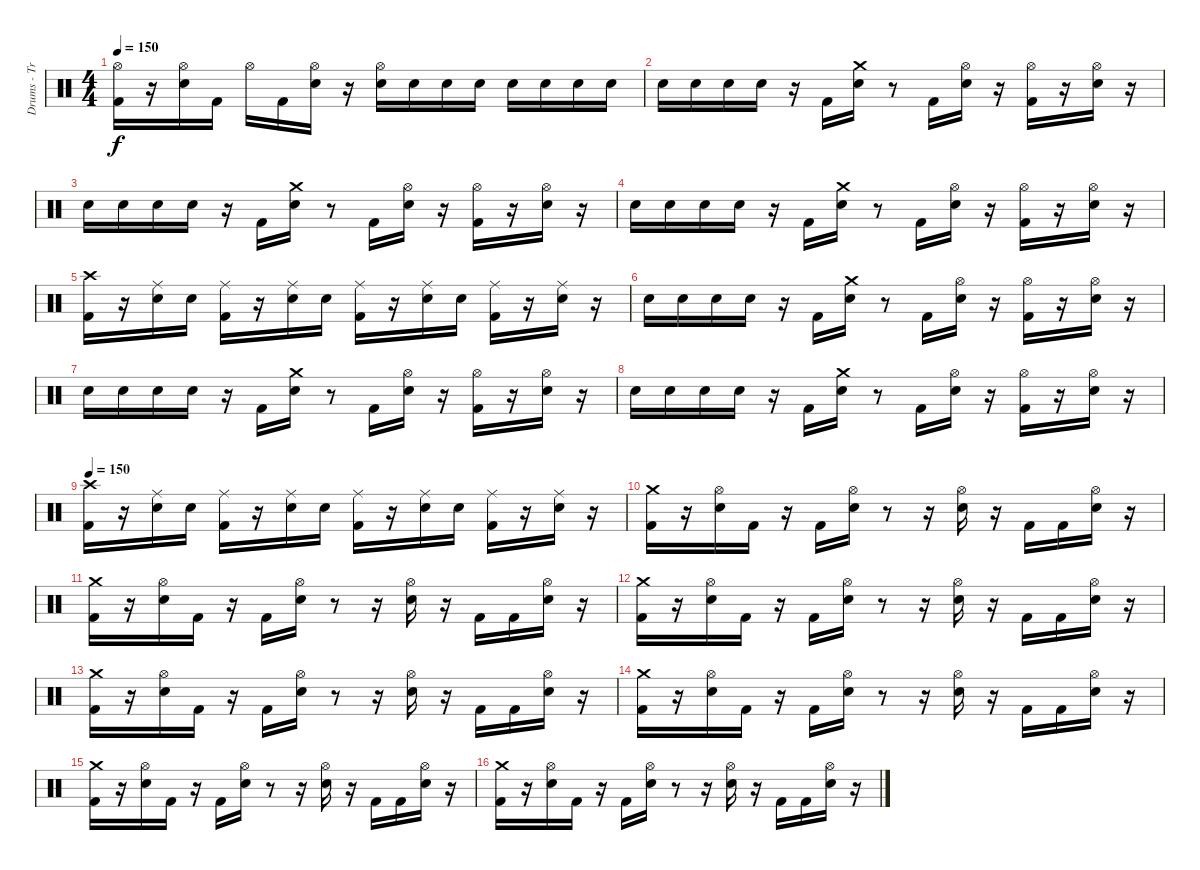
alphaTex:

\track ("Drums - Travis Barker" "Drums - Tr") {instrument percussion}
\staff {score}
\articulation defaults
\ts (4 4)
\tempo 150
\clef neutral
\ks c
("Hi-Hat (open)" "Kick (hit) 2").16{dy f} r.16 ("Hi-Hat (open)" "Electric Snare (hit)").16 "Kick (hit) 2".16 "Hi-Hat (open)".16 "Kick (hit) 2".16 ("Hi-Hat (open)" "Electric Snare (hit)").16 r.16 ("Hi-Hat (open)" "Electric Snare (hit)").16 "Electric Snare (hit)".16 "Electric Snare (hit)".16 "Electric Snare (hit)".16 "Electric Snare (hit)".16 "Electric Snare (hit)".16 "Electric Snare (hit)".16 "Electric Snare (hit)".16 |
"Electric Snare (hit)".16 "Electric Snare (hit)".16 "Electric Snare (hit)".16 "Electric Snare (hit)".16 r.16 "Kick (hit) 2".16 ("Crash medium (hit)" "Electric Snare (hit)").16 r.8 "Kick (hit) 2".16 ("Hi-Hat (open)" "Electric Snare (hit)").16 r.16 ("Hi-Hat (open)" "Kick (hit) 2").16 r.16 ("Hi-Hat (open)" "Electric Snare (hit)").16 r.16 |
"Electric Snare (hit)".16 "Electric Snare (hit)".16 "Electric Snare (hit)".16 "Electric Snare (hit)".16 r.16 "Kick (hit) 2".16 ("Crash medium (hit)" "Electric Snare (hit)").16 r.8 "Kick (hit) 2".16 ("Hi-Hat (open)" "Electric Snare (hit)").16 r.16 ("Hi-Hat (open)" "Kick (hit) 2").16 r.16 ("Hi-Hat (open)" "Electric Snare (hit)").16 r.16 |
"Electric Snare (hit)".16 "Electric Snare (hit)".16 "Electric Snare (hit)".16 "Electric Snare (hit)".16 r.16 "Kick (hit) 2".16 ("Crash medium (hit)" "Electric Snare (hit)").16 r.8 "Kick (hit) 2".16 ("Hi-Hat (open)" "Electric Snare (hit)").16 r.16 ("Hi-Hat (open)" "Kick (hit) 2").16 r.16 ("Hi-Hat (open)" "Electric Snare (hit)").16 r.16 |
("Crash high (hit)" "Kick (hit) 2").16 r.16 ("Ride (middle)" "Electric Snare (hit)").16 "Electric Snare (hit)".16 ("Ride (middle)" "Kick (hit) 2").16 r.16 ("Ride (middle)" "Electric Snare (hit)").16 "Electric Snare (hit)".16 ("Ride (middle)" "Kick (hit) 2").16 r.16 ("Ride (middle)" "Electric Snare (hit)").16 "Electric Snare (hit)".16 ("Ride (middle)" "Kick (hit) 2").16 r.16 ("Ride (middle)" "Electric Snare (hit)").16 r.16 |
"Electric Snare (hit)".16 "Electric Snare (hit)".16 "Electric Snare (hit)".16 "Electric Snare (hit)".16 r.16 "Kick (hit) 2".16 ("Crash medium (hit)" "Electric Snare (hit)").16 r.8 "Kick (hit) 2".16 ("Hi-Hat (open)" "Electric Snare (hit)").16 r.16 ("Hi-Hat (open)" "Kick (hit) 2").16 r.16 ("Hi-Hat (open)" "Electric Snare (hit)").16 r.16 |
"Electric Snare (hit)".16 "Electric Snare (hit)".16 "Electric Snare (hit)".16 "Electric Snare (hit)".16 r.16 "Kick (hit) 2".16 ("Crash medium (hit)" "Electric Snare (hit)").16 r.8 "Kick (hit) 2".16 ("Hi-Hat (open)" "Electric Snare (hit)").16 r.16 ("Hi-Hat (open)" "Kick (hit) 2").16 r.16 ("Hi-Hat (open)" "Electric Snare (hit)").16 r.16 |
"Electric Snare (hit)".16 "Electric Snare (hit)".16 "Electric Snare (hit)".16 "Electric Snare (hit)".16 r.16 "Kick (hit) 2".16 ("Crash medium (hit)" "Electric Snare (hit)").16 r.8 "Kick (hit) 2".16 ("Hi-Hat (open)" "Electric Snare (hit)").16 r.16 ("Hi-Hat (open)" "Kick (hit) 2").16 r.16 ("Hi-Hat (open)" "Electric Snare (hit)").16 r.16 |
\tempo 150
("Crash high (hit)" "Kick (hit) 2").16 r.16 ("Ride (middle)" "Electric Snare (hit)").16 "Electric Snare (hit)".16 ("Ride (middle)" "Kick (hit) 2").16 r.16 ("Ride (middle)" "Electric Snare (hit)").16 "Electric Snare (hit)".16 ("Ride (middle)" "Kick (hit) 2").16 r.16 ("Ride (middle)" "Electric Snare (hit)").16 "Electric Snare (hit)".16 ("Ride (middle)" "Kick (hit) 2").16 r.16 ("Ride (middle)" "Electric Snare (hit)").16 r.16 |
("Crash medium (hit)" "Kick (hit) 2").16 r.16 ("Hi-Hat (open)" "Electric Snare (hit)").16 "Kick (hit) 2".16 r.16 "Kick (hit) 2".16 ("Hi-Hat (open)" "Electric Snare (hit)").16 r.8 r.16 ("Hi-Hat (open)" "Electric Snare (hit)").16 r.16 "Kick (hit) 2".16 "Kick (hit) 2".16 ("Hi-Hat (open)" "Electric Snare (hit)").16 r.16 |
("Crash medium (hit)" "Kick (hit) 2").16 r.16 ("Hi-Hat (open)" "Electric Snare (hit)").16 "Kick (hit) 2".16 r.16 "Kick (hit) 2".16 ("Hi-Hat (open)" "Electric Snare (hit)").16 r.8 r.16 ("Hi-Hat (open)" "Electric Snare (hit)").16 r.16 "Kick (hit) 2".16 "Kick (hit) 2".16 ("Hi-Hat (open)" "Electric Snare (hit)").16 r.16 |
("Crash medium (hit)" "Kick (hit) 2").16 r.16 ("Hi-Hat (open)" "Electric Snare (hit)").16 "Kick (hit) 2".16 r.16 "Kick (hit) 2".16 ("Hi-Hat (open)" "Electric Snare (hit)").16 r.8 r.16 ("Hi-Hat (open)" "Electric Snare (hit)").16 r.16 "Kick (hit) 2".16 "Kick (hit) 2".16 ("Hi-Hat (open)" "Electric Snare (hit)").16 r.16 |
("Crash medium (hit)" "Kick (hit) 2").16 r.16 ("Hi-Hat (open)" "Electric Snare (hit)").16 "Kick (hit) 2".16 r.16 "Kick (hit) 2".16 ("Hi-Hat (open)" "Electric Snare (hit)").16 r.8 r.16 ("Hi-Hat (open)" "Electric Snare (hit)").16 r.16 "Kick (hit) 2".16 "Kick (hit) 2".16 ("Hi-Hat (open)" "Electric Snare (hit)").16 r.16 |
("Crash medium (hit)" "Kick (hit) 2").16 r.16 ("Hi-Hat (open)" "Electric Snare (hit)").16 "Kick (hit) 2".16 r.16 "Kick (hit) 2".16 ("Hi-Hat (open)" "Electric Snare (hit)").16 r.8 r.16 ("Hi-Hat (open)" "Electric Snare (hit)").16 r.16 "Kick (hit) 2".16 "Kick (hit) 2".16 ("Hi-Hat (open)" "Electric Snare (hit)").16 r.16 |
("Crash medium (hit)" "Kick (hit) 2").16 r.16 ("Hi-Hat (open)" "Electric Snare (hit)").16 "Kick (hit) 2".16 r.16 "Kick (hit) 2".16 ("Hi-Hat (open)" "Electric Snare (hit)").16 r.8 r.16 ("Hi-Hat (open)" "Electric Snare (hit)").16 r.16 "Kick (hit) 2".16 "Kick (hit) 2".16 ("Hi-Hat (open)" "Electric Snare (hit)").16 r.16 |
("Crash medium (hit)" "Kick (hit) 2").16 r.16 ("Hi-Hat (open)" "Electric Snare (hit)").16 "Kick (hit) 2".16 r.16 "Kick (hit) 2".16 ("Hi-Hat (open)" "Electric Snare (hit)").16 r.8 r.16 ("Hi-Hat (open)" "Electric Snare (hit)").16 r.16 "Kick (hit) 2".16 "Kick (hit) 2".16 ("Hi-Hat (open)" "Electric Snare (hit)").16 r.16
